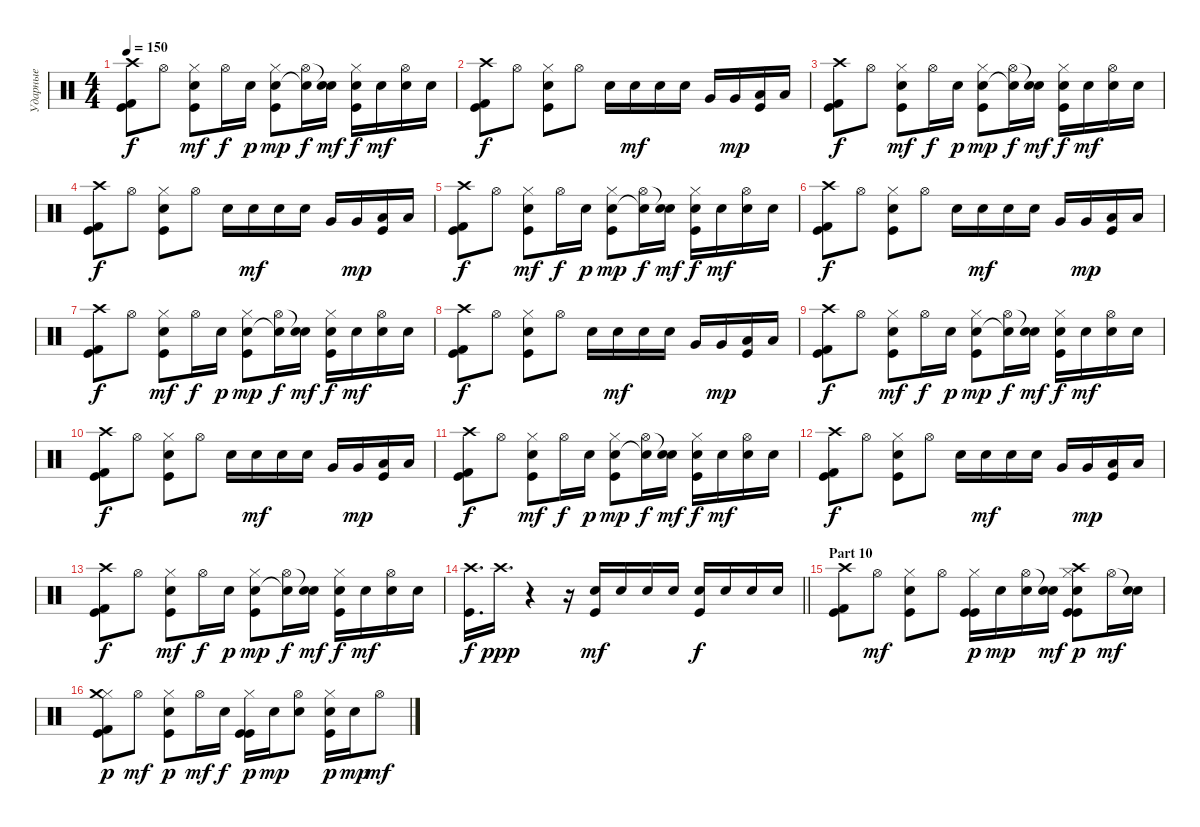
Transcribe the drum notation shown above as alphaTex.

\track ("Ударные" "Ударные") {instrument percussion}
\staff {score}
\articulation defaults
\ts (4 4)
\tempo 150
\clef neutral
\ks c
("Crash high (hit)" "Kick (hit) 2" "Kick (hit)").8{dy f} "Hi-Hat (open)".8 ("Hi-Hat (closed)" "Electric Snare (hit)" "Kick (hit)").8{dy mf} "Hi-Hat (open)".16{dy f} "Electric Snare (hit)".16{dy p} ("Hi-Hat (closed)" "Snare (hit) 2" "Kick (hit)").8{dy mp} ("Hi-Hat (open)" "Snare (hit)"{t}).16{dy f} ("Snare (hit)"{t} "Electric Snare (hit)").16{dy mf} ("Hi-Hat (closed)" "Electric Snare (hit)" "Kick (hit)").16{dy f} "Electric Snare (hit)".16{dy mf} ("Hi-Hat (open)" "Electric Snare (hit)").16 "Electric Snare (hit)".16 |
("Crash high (hit)" "Kick (hit) 2" "Kick (hit)").8{dy f} "Hi-Hat (open)".8 ("Hi-Hat (closed)" "Electric Snare (hit)" "Kick (hit)").8 "Hi-Hat (open)".8 "Electric Snare (hit)".16 "Electric Snare (hit)".16{dy mf} "Electric Snare (hit)".16 "Electric Snare (hit)".16 "Very Low Tom (hit)".16 "Very Low Tom (hit)".16{dy mp} ("Low Floor Tom (hit)" "Kick (hit)").16 "Low Floor Tom (hit)".16 |
("Crash high (hit)" "Kick (hit) 2" "Kick (hit)").8{dy f} "Hi-Hat (open)".8 ("Hi-Hat (closed)" "Electric Snare (hit)" "Kick (hit)").8{dy mf} "Hi-Hat (open)".16{dy f} "Electric Snare (hit)".16{dy p} ("Hi-Hat (closed)" "Snare (hit) 2" "Kick (hit)").8{dy mp} ("Hi-Hat (open)" "Snare (hit)"{t}).16{dy f} ("Snare (hit)"{t} "Electric Snare (hit)").16{dy mf} ("Hi-Hat (closed)" "Electric Snare (hit)" "Kick (hit)").16{dy f} "Electric Snare (hit)".16{dy mf} ("Hi-Hat (open)" "Electric Snare (hit)").16 "Electric Snare (hit)".16 |
("Crash high (hit)" "Kick (hit) 2" "Kick (hit)").8{dy f} "Hi-Hat (open)".8 ("Hi-Hat (closed)" "Electric Snare (hit)" "Kick (hit)").8 "Hi-Hat (open)".8 "Electric Snare (hit)".16 "Electric Snare (hit)".16{dy mf} "Electric Snare (hit)".16 "Electric Snare (hit)".16 "Very Low Tom (hit)".16 "Very Low Tom (hit)".16{dy mp} ("Low Floor Tom (hit)" "Kick (hit)").16 "Low Floor Tom (hit)".16 |
("Crash high (hit)" "Kick (hit) 2" "Kick (hit)").8{dy f} "Hi-Hat (open)".8 ("Hi-Hat (closed)" "Electric Snare (hit)" "Kick (hit)").8{dy mf} "Hi-Hat (open)".16{dy f} "Electric Snare (hit)".16{dy p} ("Hi-Hat (closed)" "Snare (hit) 2" "Kick (hit)").8{dy mp} ("Hi-Hat (open)" "Snare (hit)"{t}).16{dy f} ("Snare (hit)"{t} "Electric Snare (hit)").16{dy mf} ("Hi-Hat (closed)" "Electric Snare (hit)" "Kick (hit)").16{dy f} "Electric Snare (hit)".16{dy mf} ("Hi-Hat (open)" "Electric Snare (hit)").16 "Electric Snare (hit)".16 |
("Crash high (hit)" "Kick (hit) 2" "Kick (hit)").8{dy f} "Hi-Hat (open)".8 ("Hi-Hat (closed)" "Electric Snare (hit)" "Kick (hit)").8 "Hi-Hat (open)".8 "Electric Snare (hit)".16 "Electric Snare (hit)".16{dy mf} "Electric Snare (hit)".16 "Electric Snare (hit)".16 "Very Low Tom (hit)".16 "Very Low Tom (hit)".16{dy mp} ("Low Floor Tom (hit)" "Kick (hit)").16 "Low Floor Tom (hit)".16 |
("Crash high (hit)" "Kick (hit) 2" "Kick (hit)").8{dy f} "Hi-Hat (open)".8 ("Hi-Hat (closed)" "Electric Snare (hit)" "Kick (hit)").8{dy mf} "Hi-Hat (open)".16{dy f} "Electric Snare (hit)".16{dy p} ("Hi-Hat (closed)" "Snare (hit) 2" "Kick (hit)").8{dy mp} ("Hi-Hat (open)" "Snare (hit)"{t}).16{dy f} ("Snare (hit)"{t} "Electric Snare (hit)").16{dy mf} ("Hi-Hat (closed)" "Electric Snare (hit)" "Kick (hit)").16{dy f} "Electric Snare (hit)".16{dy mf} ("Hi-Hat (open)" "Electric Snare (hit)").16 "Electric Snare (hit)".16 |
("Crash high (hit)" "Kick (hit) 2" "Kick (hit)").8{dy f} "Hi-Hat (open)".8 ("Hi-Hat (closed)" "Electric Snare (hit)" "Kick (hit)").8 "Hi-Hat (open)".8 "Electric Snare (hit)".16 "Electric Snare (hit)".16{dy mf} "Electric Snare (hit)".16 "Electric Snare (hit)".16 "Very Low Tom (hit)".16 "Very Low Tom (hit)".16{dy mp} ("Low Floor Tom (hit)" "Kick (hit)").16 "Low Floor Tom (hit)".16 |
("Crash high (hit)" "Kick (hit) 2" "Kick (hit)").8{dy f} "Hi-Hat (open)".8 ("Hi-Hat (closed)" "Electric Snare (hit)" "Kick (hit)").8{dy mf} "Hi-Hat (open)".16{dy f} "Electric Snare (hit)".16{dy p} ("Hi-Hat (closed)" "Snare (hit) 2" "Kick (hit)").8{dy mp} ("Hi-Hat (open)" "Snare (hit)"{t}).16{dy f} ("Snare (hit)"{t} "Electric Snare (hit)").16{dy mf} ("Hi-Hat (closed)" "Electric Snare (hit)" "Kick (hit)").16{dy f} "Electric Snare (hit)".16{dy mf} ("Hi-Hat (open)" "Electric Snare (hit)").16 "Electric Snare (hit)".16 |
("Crash high (hit)" "Kick (hit) 2" "Kick (hit)").8{dy f} "Hi-Hat (open)".8 ("Hi-Hat (closed)" "Electric Snare (hit)" "Kick (hit)").8 "Hi-Hat (open)".8 "Electric Snare (hit)".16 "Electric Snare (hit)".16{dy mf} "Electric Snare (hit)".16 "Electric Snare (hit)".16 "Very Low Tom (hit)".16 "Very Low Tom (hit)".16{dy mp} ("Low Floor Tom (hit)" "Kick (hit)").16 "Low Floor Tom (hit)".16 |
("Crash high (hit)" "Kick (hit) 2" "Kick (hit)").8{dy f} "Hi-Hat (open)".8 ("Hi-Hat (closed)" "Electric Snare (hit)" "Kick (hit)").8{dy mf} "Hi-Hat (open)".16{dy f} "Electric Snare (hit)".16{dy p} ("Hi-Hat (closed)" "Snare (hit) 2" "Kick (hit)").8{dy mp} ("Hi-Hat (open)" "Snare (hit)"{t}).16{dy f} ("Snare (hit)"{t} "Electric Snare (hit)").16{dy mf} ("Hi-Hat (closed)" "Electric Snare (hit)" "Kick (hit)").16{dy f} "Electric Snare (hit)".16{dy mf} ("Hi-Hat (open)" "Electric Snare (hit)").16 "Electric Snare (hit)".16 |
("Crash high (hit)" "Kick (hit) 2" "Kick (hit)").8{dy f} "Hi-Hat (open)".8 ("Hi-Hat (closed)" "Electric Snare (hit)" "Kick (hit)").8 "Hi-Hat (open)".8 "Electric Snare (hit)".16 "Electric Snare (hit)".16{dy mf} "Electric Snare (hit)".16 "Electric Snare (hit)".16 "Very Low Tom (hit)".16 "Very Low Tom (hit)".16{dy mp} ("Low Floor Tom (hit)" "Kick (hit)").16 "Low Floor Tom (hit)".16 |
("Crash high (hit)" "Kick (hit) 2" "Kick (hit)").8{dy f} "Hi-Hat (open)".8 ("Hi-Hat (closed)" "Electric Snare (hit)" "Kick (hit)").8{dy mf} "Hi-Hat (open)".16{dy f} "Electric Snare (hit)".16{dy p} ("Hi-Hat (closed)" "Snare (hit) 2" "Kick (hit)").8{dy mp} ("Hi-Hat (open)" "Snare (hit)"{t}).16{dy f} ("Snare (hit)"{t} "Electric Snare (hit)").16{dy mf} ("Hi-Hat (closed)" "Electric Snare (hit)" "Kick (hit)").16{dy f} "Electric Snare (hit)".16{dy mf} ("Hi-Hat (open)" "Electric Snare (hit)").16 "Electric Snare (hit)".16 |
\barLineRight lightlight
("Crash high (hit)" "Kick (hit)").16{d dy f} "Crash high (hit)".16{d dy ppp} r.4 r.16 ("Electric Snare (hit)" "Kick (hit)").16{dy mf} "Electric Snare (hit)".16 "Electric Snare (hit)".16 "Electric Snare (hit)".16 ("Electric Snare (hit)" "Kick (hit)").16{dy f} "Electric Snare (hit)".16 "Electric Snare (hit)".16 "Electric Snare (hit)".16 |
\section ("" "Part 10")
("Kick (hit) 2" "Kick (hit)" "Crash high (hit)").8 "Hi-Hat (open)".8{dy mf} ("Kick (hit)" "Hi-Hat (closed)" "Electric Snare (hit)").8 "Hi-Hat (open)".8 ("Kick (hit)" "Hi-Hat (closed)" "Kick (hit)").16{dy p} "Electric Snare (hit)".16{dy mp} ("Hi-Hat (open)" "Electric Snare (hit)").16 ("Snare (hit)"{t} "Electric Snare (hit)").16{dy mf} ("Kick (hit)" "Hi-Hat (closed)" "Electric Snare (hit)" "Crash high (hit)" "Kick (hit)").8{dy p} "Hi-Hat (open)".16{dy mf} ("Snare (hit)"{t} "Snare (hit) 2").16 |
("Kick (hit) 2" "Hi-Hat (closed)" "Kick (hit)" "Crash medium (hit)").8{dy p} "Hi-Hat (open)".8{dy mf} ("Kick (hit)" "Hi-Hat (closed)" "Electric Snare (hit)").8{dy p} "Hi-Hat (open)".16{dy mf} "Electric Snare (hit)".16{dy f} ("Kick (hit)" "Hi-Hat (closed)" "Kick (hit)").16{dy p} "Electric Snare (hit)".16{dy mp} ("Hi-Hat (open)" "Electric Snare (hit)").8 ("Kick (hit)" "Hi-Hat (closed)" "Electric Snare (hit)").16{dy p} "Electric Snare (hit)".16{dy mp} "Hi-Hat (open)".8{dy mf}
